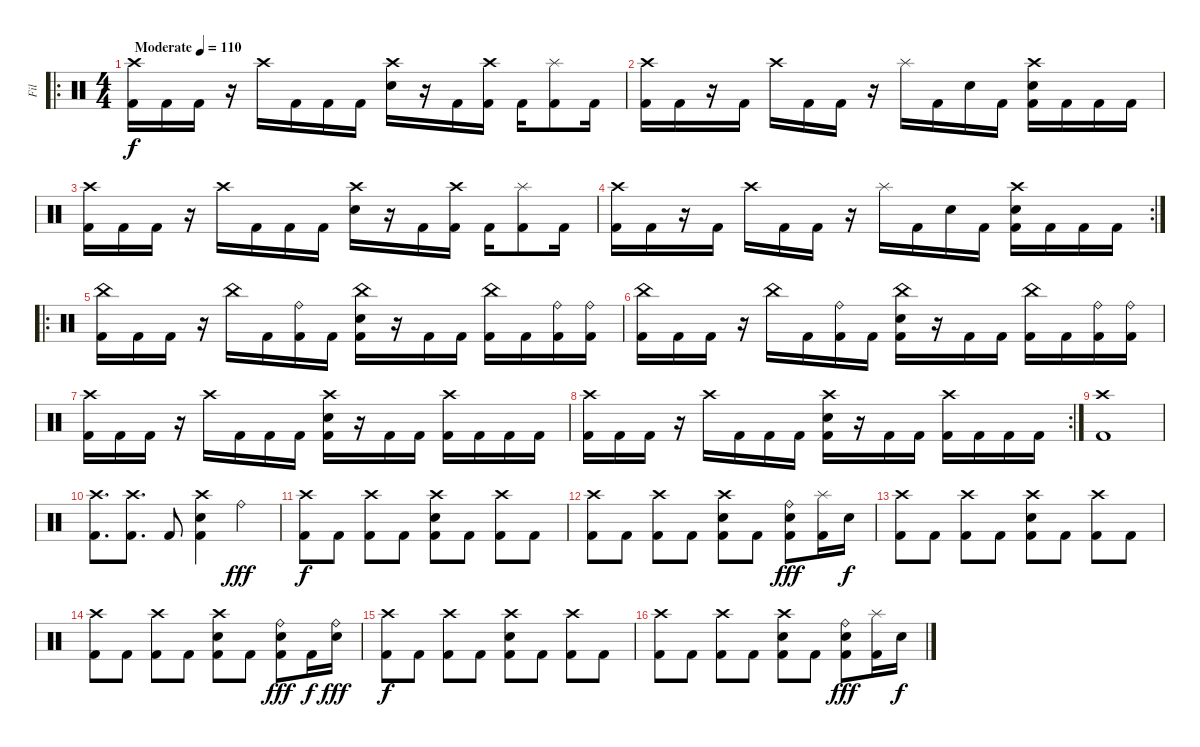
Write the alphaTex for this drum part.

\track ("Fil" "Fil") {instrument percussion}
\staff {score}
\articulation defaults
\ro
\ts (4 4)
\tempo (110 "Moderate")
\clef neutral
\ks c
("Crash high (hit)" "Kick (hit) 2").16{dy f} "Kick (hit) 2".16 "Kick (hit) 2".16 r.16 "Crash high (hit)".16 "Kick (hit) 2".16 "Kick (hit) 2".16 "Kick (hit) 2".16 ("Crash high (hit)" "Snare (hit) 2").16 r.16 "Kick (hit) 2".16 ("Kick (hit) 2" "Crash high (hit)").16 "Kick (hit) 2".16 ("Kick (hit) 2" "Splash (hit)").8 "Kick (hit) 2".16 |
("Crash high (hit)" "Kick (hit) 2").16 "Kick (hit) 2".16 r.16 "Kick (hit) 2".16 "Crash high (hit)".16 "Kick (hit) 2".16 "Kick (hit) 2".16 r.16 "Splash (hit)".16 "Kick (hit) 2".16 "Snare (hit) 2".16 "Kick (hit) 2".16 ("Kick (hit) 2" "Crash high (hit)" "Snare (hit) 2").16 "Kick (hit) 2".16 "Kick (hit) 2".16 "Kick (hit) 2".16 |
("Crash high (hit)" "Kick (hit) 2").16 "Kick (hit) 2".16 "Kick (hit) 2".16 r.16 "Crash high (hit)".16 "Kick (hit) 2".16 "Kick (hit) 2".16 "Kick (hit) 2".16 ("Crash high (hit)" "Snare (hit) 2").16 r.16 "Kick (hit) 2".16 ("Kick (hit) 2" "Crash high (hit)").16 "Kick (hit) 2".16 ("Kick (hit) 2" "Splash (hit)").8 "Kick (hit) 2".16 |
\rc 2
("Crash high (hit)" "Kick (hit) 2").16 "Kick (hit) 2".16 r.16 "Kick (hit) 2".16 "Crash high (hit)".16 "Kick (hit) 2".16 "Kick (hit) 2".16 r.16 "Splash (hit)".16 "Kick (hit) 2".16 "Snare (hit) 2".16 "Kick (hit) 2".16 ("Kick (hit) 2" "Crash high (hit)" "Snare (hit) 2").16 "Kick (hit) 2".16 "Kick (hit) 2".16 "Kick (hit) 2".16 |
\ro
("China (hit)" "Kick (hit) 2").16 "Kick (hit) 2".16 "Kick (hit) 2".16 r.16 "China (hit)".16 "Kick (hit) 2".16 ("Kick (hit) 2" "Ride (bell)").16 "Kick (hit) 2".16 ("Kick (hit) 2" "China (hit)" "Snare (hit) 2").16 r.16 "Kick (hit) 2".16 "Kick (hit) 2".16 ("Kick (hit) 2" "China (hit)").16 "Kick (hit) 2".16 ("Kick (hit) 2" "Ride (bell)").16 ("Kick (hit) 2" "Ride (bell)").16 |
("China (hit)" "Kick (hit) 2").16 "Kick (hit) 2".16 "Kick (hit) 2".16 r.16 "China (hit)".16 "Kick (hit) 2".16 ("Kick (hit) 2" "Ride (bell)").16 "Kick (hit) 2".16 ("Kick (hit) 2" "China (hit)" "Snare (hit) 2").16 r.16 "Kick (hit) 2".16 "Kick (hit) 2".16 ("Kick (hit) 2" "China (hit)").16 "Kick (hit) 2".16 ("Kick (hit) 2" "Ride (bell)").16 ("Kick (hit) 2" "Ride (bell)").16 |
("Crash high (hit)" "Kick (hit) 2").16 "Kick (hit) 2".16 "Kick (hit) 2".16 r.16 "Crash high (hit)".16 "Kick (hit) 2".16 "Kick (hit) 2".16 "Kick (hit) 2".16 ("Kick (hit) 2" "Crash high (hit)" "Snare (hit) 2").16 r.16 "Kick (hit) 2".16 "Kick (hit) 2".16 ("Kick (hit) 2" "Crash high (hit)").16 "Kick (hit) 2".16 "Kick (hit) 2".16 "Kick (hit) 2".16 |
\rc 2
("Crash high (hit)" "Kick (hit) 2").16 "Kick (hit) 2".16 "Kick (hit) 2".16 r.16 "Crash high (hit)".16 "Kick (hit) 2".16 "Kick (hit) 2".16 "Kick (hit) 2".16 ("Kick (hit) 2" "Crash high (hit)" "Snare (hit) 2").16 r.16 "Kick (hit) 2".16 "Kick (hit) 2".16 ("Kick (hit) 2" "Crash high (hit)").16 "Kick (hit) 2".16 "Kick (hit) 2".16 "Kick (hit) 2".16 |
("Crash high (hit)" "Kick (hit) 2").1 |
("Crash high (hit)" "Kick (hit) 2").8{d} ("Kick (hit) 2" "Crash high (hit)").8{d} "Kick (hit) 2".8 ("Kick (hit) 2" "Crash high (hit)" "Snare (hit) 2").4 "Ride (bell)".4{dy fff} |
("Crash high (hit)" "Kick (hit) 2").8{dy f} "Kick (hit) 2".8 ("Kick (hit) 2" "Crash high (hit)").8 "Kick (hit) 2".8 ("Kick (hit) 2" "Crash high (hit)" "Snare (hit) 2").8 "Kick (hit) 2".8 ("Kick (hit) 2" "Crash high (hit)").8 "Kick (hit) 2".8 |
("Crash high (hit)" "Kick (hit) 2").8 "Kick (hit) 2".8 ("Kick (hit) 2" "Crash high (hit)").8 "Kick (hit) 2".8 ("Kick (hit) 2" "Crash high (hit)" "Snare (hit) 2").8 "Kick (hit) 2".8 ("Kick (hit) 2" "Ride (bell)" "Snare (hit) 2").8{dy fff} ("Kick (hit) 2" "Splash (hit)").16 "Snare (hit) 2".16{dy f} |
("Crash high (hit)" "Kick (hit) 2").8 "Kick (hit) 2".8 ("Kick (hit) 2" "Crash high (hit)").8 "Kick (hit) 2".8 ("Kick (hit) 2" "Crash high (hit)" "Snare (hit) 2").8 "Kick (hit) 2".8 ("Kick (hit) 2" "Crash high (hit)").8 "Kick (hit) 2".8 |
("Crash high (hit)" "Kick (hit) 2").8 "Kick (hit) 2".8 ("Kick (hit) 2" "Crash high (hit)").8 "Kick (hit) 2".8 ("Kick (hit) 2" "Crash high (hit)" "Snare (hit) 2").8 "Kick (hit) 2".8 ("Kick (hit) 2" "Ride (bell)" "Snare (hit) 2").8{dy fff} "Kick (hit) 2".16{dy f} ("Snare (hit) 2" "Ride (bell)").16{dy fff} |
("Crash high (hit)" "Kick (hit) 2").8{dy f} "Kick (hit) 2".8 ("Kick (hit) 2" "Crash high (hit)").8 "Kick (hit) 2".8 ("Kick (hit) 2" "Crash high (hit)" "Snare (hit) 2").8 "Kick (hit) 2".8 ("Kick (hit) 2" "Crash high (hit)").8 "Kick (hit) 2".8 |
("Crash high (hit)" "Kick (hit) 2").8 "Kick (hit) 2".8 ("Kick (hit) 2" "Crash high (hit)").8 "Kick (hit) 2".8 ("Kick (hit) 2" "Crash high (hit)" "Snare (hit) 2").8 "Kick (hit) 2".8 ("Kick (hit) 2" "Ride (bell)" "Snare (hit) 2").8{dy fff} ("Kick (hit) 2" "Splash (hit)").16 "Snare (hit) 2".16{dy f}
